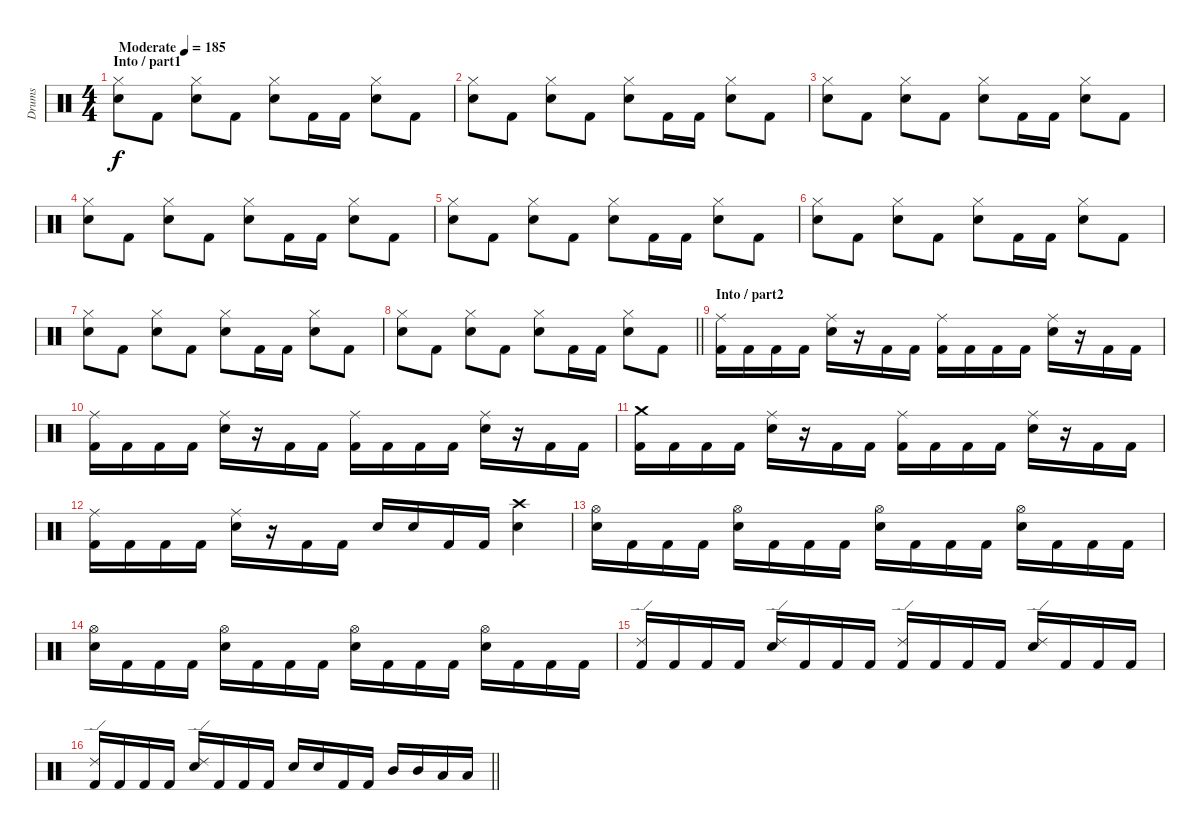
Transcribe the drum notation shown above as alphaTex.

\track ("Drums" "Drums") {instrument percussion}
\staff {score}
\articulation defaults
\ts (4 4)
\section ("" "Into / part1")
\tempo (185 "Moderate")
\clef neutral
\ks c
("Hi-Hat (closed)" "Electric Snare (hit)").8{dy f} "Kick (hit) 2".8 ("Hi-Hat (closed)" "Electric Snare (hit)").8 "Kick (hit) 2".8 ("Hi-Hat (closed)" "Electric Snare (hit)").8 "Kick (hit) 2".16 "Kick (hit) 2".16 ("Hi-Hat (closed)" "Electric Snare (hit)").8 "Kick (hit) 2".8 |
("Hi-Hat (closed)" "Electric Snare (hit)").8 "Kick (hit) 2".8 ("Hi-Hat (closed)" "Electric Snare (hit)").8 "Kick (hit) 2".8 ("Hi-Hat (closed)" "Electric Snare (hit)").8 "Kick (hit) 2".16 "Kick (hit) 2".16 ("Hi-Hat (closed)" "Electric Snare (hit)").8 "Kick (hit) 2".8 |
("Hi-Hat (closed)" "Electric Snare (hit)").8 "Kick (hit) 2".8 ("Hi-Hat (closed)" "Electric Snare (hit)").8 "Kick (hit) 2".8 ("Hi-Hat (closed)" "Electric Snare (hit)").8 "Kick (hit) 2".16 "Kick (hit) 2".16 ("Hi-Hat (closed)" "Electric Snare (hit)").8 "Kick (hit) 2".8 |
("Hi-Hat (closed)" "Electric Snare (hit)").8 "Kick (hit) 2".8 ("Hi-Hat (closed)" "Electric Snare (hit)").8 "Kick (hit) 2".8 ("Hi-Hat (closed)" "Electric Snare (hit)").8 "Kick (hit) 2".16 "Kick (hit) 2".16 ("Hi-Hat (closed)" "Electric Snare (hit)").8 "Kick (hit) 2".8 |
("Hi-Hat (closed)" "Electric Snare (hit)").8 "Kick (hit) 2".8 ("Hi-Hat (closed)" "Electric Snare (hit)").8 "Kick (hit) 2".8 ("Hi-Hat (closed)" "Electric Snare (hit)").8 "Kick (hit) 2".16 "Kick (hit) 2".16 ("Hi-Hat (closed)" "Electric Snare (hit)").8 "Kick (hit) 2".8 |
("Hi-Hat (closed)" "Electric Snare (hit)").8 "Kick (hit) 2".8 ("Hi-Hat (closed)" "Electric Snare (hit)").8 "Kick (hit) 2".8 ("Hi-Hat (closed)" "Electric Snare (hit)").8 "Kick (hit) 2".16 "Kick (hit) 2".16 ("Hi-Hat (closed)" "Electric Snare (hit)").8 "Kick (hit) 2".8 |
("Hi-Hat (closed)" "Electric Snare (hit)").8 "Kick (hit) 2".8 ("Hi-Hat (closed)" "Electric Snare (hit)").8 "Kick (hit) 2".8 ("Hi-Hat (closed)" "Electric Snare (hit)").8 "Kick (hit) 2".16 "Kick (hit) 2".16 ("Hi-Hat (closed)" "Electric Snare (hit)").8 "Kick (hit) 2".8 |
\barLineRight lightlight
("Hi-Hat (closed)" "Electric Snare (hit)").8 "Kick (hit) 2".8 ("Hi-Hat (closed)" "Electric Snare (hit)").8 "Kick (hit) 2".8 ("Hi-Hat (closed)" "Electric Snare (hit)").8 "Kick (hit) 2".16 "Kick (hit) 2".16 ("Hi-Hat (closed)" "Electric Snare (hit)").8 "Kick (hit) 2".8 |
\section ("" "Into / part2")
("Ride (middle)" "Kick (hit) 2").16 "Kick (hit) 2".16 "Kick (hit) 2".16 "Kick (hit) 2".16 ("Ride (middle)" "Electric Snare (hit)").16 r.16 "Kick (hit) 2".16 "Kick (hit) 2".16 ("Ride (middle)" "Kick (hit) 2").16 "Kick (hit) 2".16 "Kick (hit) 2".16 "Kick (hit) 2".16 ("Ride (middle)" "Electric Snare (hit)").16 r.16 "Kick (hit) 2".16 "Kick (hit) 2".16 |
("Ride (middle)" "Kick (hit) 2").16 "Kick (hit) 2".16 "Kick (hit) 2".16 "Kick (hit) 2".16 ("Ride (middle)" "Electric Snare (hit)").16 r.16 "Kick (hit) 2".16 "Kick (hit) 2".16 ("Ride (middle)" "Kick (hit) 2").16 "Kick (hit) 2".16 "Kick (hit) 2".16 "Kick (hit) 2".16 ("Ride (middle)" "Electric Snare (hit)").16 r.16 "Kick (hit) 2".16 "Kick (hit) 2".16 |
("Crash medium (hit)" "Kick (hit) 2").16 "Kick (hit) 2".16 "Kick (hit) 2".16 "Kick (hit) 2".16 ("Ride (middle)" "Electric Snare (hit)").16 r.16 "Kick (hit) 2".16 "Kick (hit) 2".16 ("Ride (middle)" "Kick (hit) 2").16 "Kick (hit) 2".16 "Kick (hit) 2".16 "Kick (hit) 2".16 ("Ride (middle)" "Electric Snare (hit)").16 r.16 "Kick (hit) 2".16 "Kick (hit) 2".16 |
("Ride (middle)" "Kick (hit) 2").16 "Kick (hit) 2".16 "Kick (hit) 2".16 "Kick (hit) 2".16 ("Ride (middle)" "Electric Snare (hit)").16 r.16 "Kick (hit) 2".16 "Kick (hit) 2".16 "Electric Snare (hit)".16 "Electric Snare (hit)".16 "Kick (hit) 2".16 "Kick (hit) 2".16 ("Crash high (hit)" "Electric Snare (hit)").4 |
("Hi-Hat (open)" "Electric Snare (hit)").16 "Kick (hit) 2".16 "Kick (hit) 2".16 "Kick (hit) 2".16 ("Hi-Hat (open)" "Electric Snare (hit)").16 "Kick (hit) 2".16 "Kick (hit) 2".16 "Kick (hit) 2".16 ("Hi-Hat (open)" "Electric Snare (hit)").16 "Kick (hit) 2".16 "Kick (hit) 2".16 "Kick (hit) 2".16 ("Hi-Hat (open)" "Electric Snare (hit)").16 "Kick (hit) 2".16 "Kick (hit) 2".16 "Kick (hit) 2".16 |
("Hi-Hat (open)" "Electric Snare (hit)").16 "Kick (hit) 2".16 "Kick (hit) 2".16 "Kick (hit) 2".16 ("Hi-Hat (open)" "Electric Snare (hit)").16 "Kick (hit) 2".16 "Kick (hit) 2".16 "Kick (hit) 2".16 ("Hi-Hat (open)" "Electric Snare (hit)").16 "Kick (hit) 2".16 "Kick (hit) 2".16 "Kick (hit) 2".16 ("Hi-Hat (open)" "Electric Snare (hit)").16 "Kick (hit) 2".16 "Kick (hit) 2".16 "Kick (hit) 2".16 |
("Ride (edge) 2" "Kick (hit) 2").16 "Kick (hit) 2".16 "Kick (hit) 2".16 "Kick (hit) 2".16 ("Ride (edge) 2" "Electric Snare (hit)").16 "Kick (hit) 2".16 "Kick (hit) 2".16 "Kick (hit) 2".16 ("Ride (edge) 2" "Kick (hit) 2").16 "Kick (hit) 2".16 "Kick (hit) 2".16 "Kick (hit) 2".16 ("Ride (edge) 2" "Electric Snare (hit)").16 "Kick (hit) 2".16 "Kick (hit) 2".16 "Kick (hit) 2".16 |
\barLineRight lightlight
("Ride (edge) 2" "Kick (hit) 2").16 "Kick (hit) 2".16 "Kick (hit) 2".16 "Kick (hit) 2".16 ("Ride (edge) 2" "Electric Snare (hit)").16 "Kick (hit) 2".16 "Kick (hit) 2".16 "Kick (hit) 2".16 "Electric Snare (hit)".16 "Electric Snare (hit)".16 "Kick (hit) 2".16 "Kick (hit) 2".16 "Mid Tom (hit)".16 "Mid Tom (hit)".16 "Low Tom (hit)".16 "Low Tom (hit)".16
